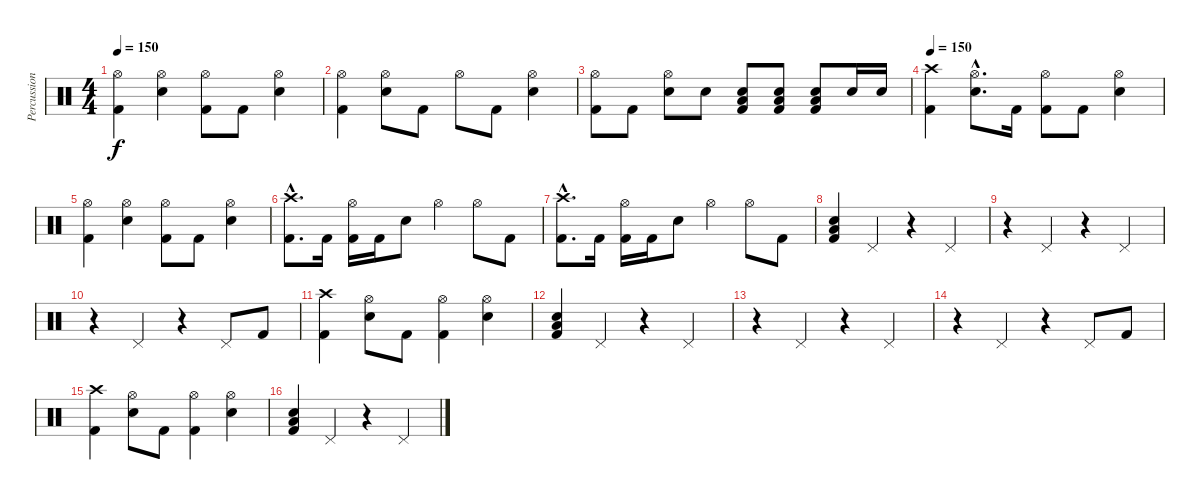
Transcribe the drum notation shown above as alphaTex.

\track ("Percussion" "Percussion") {instrument percussion}
\staff {score}
\articulation defaults
\ts (4 4)
\tempo 150
\clef neutral
\ks c
("Hi-Hat (open)" "Kick (hit) 2").4{dy f} ("Hi-Hat (open)" "Snare (hit) 2").4 ("Hi-Hat (open)" "Kick (hit) 2").8 "Kick (hit) 2".8 ("Hi-Hat (open)" "Snare (hit) 2").4 |
("Hi-Hat (open)" "Kick (hit) 2").4 ("Hi-Hat (open)" "Snare (hit) 2").8 "Kick (hit) 2".8 "Hi-Hat (open)".8 "Kick (hit) 2".8 ("Hi-Hat (open)" "Snare (hit) 2").4 |
("Hi-Hat (open)" "Kick (hit) 2").8 "Kick (hit) 2".8 ("Hi-Hat (open)" "Snare (hit) 2").8 "Snare (hit) 2".8 ("Low Floor Tom (hit)" "Snare (hit) 2" "Kick (hit) 2").8 ("Low Floor Tom (hit)" "Snare (hit) 2" "Kick (hit) 2").8 ("Low Floor Tom (hit)" "Snare (hit) 2" "Kick (hit) 2").8 "Snare (hit) 2".16 "Snare (hit) 2".16 |
\tempo 150
("Crash high (hit)" "Kick (hit) 2").4 ("Hi-Hat (open)"{hac} "Snare (hit) 2"{hac}).8{d} "Kick (hit) 2".16 ("Hi-Hat (open)" "Kick (hit) 2").8 "Kick (hit) 2".8 ("Hi-Hat (open)" "Snare (hit) 2").4 |
("Hi-Hat (open)" "Kick (hit) 2").4 ("Hi-Hat (open)" "Snare (hit) 2").4 ("Hi-Hat (open)" "Kick (hit) 2").8 "Kick (hit) 2".8 ("Hi-Hat (open)" "Snare (hit) 2").4 |
("Crash high (hit)"{hac} "Kick (hit) 2"{hac}).8{d} "Kick (hit) 2".16 ("Hi-Hat (open)" "Kick (hit) 2").16 "Kick (hit) 2".16 "Snare (hit) 2".8 "Hi-Hat (open)".4 "Hi-Hat (open)".8 "Kick (hit) 2".8 |
("Crash high (hit)"{hac} "Kick (hit) 2"{hac}).8{d} "Kick (hit) 2".16 ("Hi-Hat (open)" "Kick (hit) 2").16 "Kick (hit) 2".16 "Snare (hit) 2".8 "Hi-Hat (open)".4 "Hi-Hat (open)".8 "Kick (hit) 2".8 |
("Low Floor Tom (hit)" "Snare (hit) 2" "Kick (hit) 2").4 "Pedal Hi-Hat (hit)".4 r.4 "Pedal Hi-Hat (hit)".4 |
r.4 "Pedal Hi-Hat (hit)".4 r.4 "Pedal Hi-Hat (hit)".4 |
r.4 "Pedal Hi-Hat (hit)".4 r.4 "Pedal Hi-Hat (hit)".8 "Kick (hit) 2".8 |
("Crash high (hit)" "Kick (hit) 2").4 ("Hi-Hat (open)" "Snare (hit) 2").8 "Kick (hit) 2".8 ("Hi-Hat (open)" "Kick (hit) 2").4 ("Hi-Hat (open)" "Snare (hit) 2").4 |
("Low Floor Tom (hit)" "Snare (hit) 2" "Kick (hit) 2").4 "Pedal Hi-Hat (hit)".4 r.4 "Pedal Hi-Hat (hit)".4 |
r.4 "Pedal Hi-Hat (hit)".4 r.4 "Pedal Hi-Hat (hit)".4 |
r.4 "Pedal Hi-Hat (hit)".4 r.4 "Pedal Hi-Hat (hit)".8 "Kick (hit) 2".8 |
("Crash high (hit)" "Kick (hit) 2").4 ("Hi-Hat (open)" "Snare (hit) 2").8 "Kick (hit) 2".8 ("Hi-Hat (open)" "Kick (hit) 2").4 ("Hi-Hat (open)" "Snare (hit) 2").4 |
("Low Floor Tom (hit)" "Snare (hit) 2" "Kick (hit) 2").4 "Pedal Hi-Hat (hit)".4 r.4 "Pedal Hi-Hat (hit)".4
